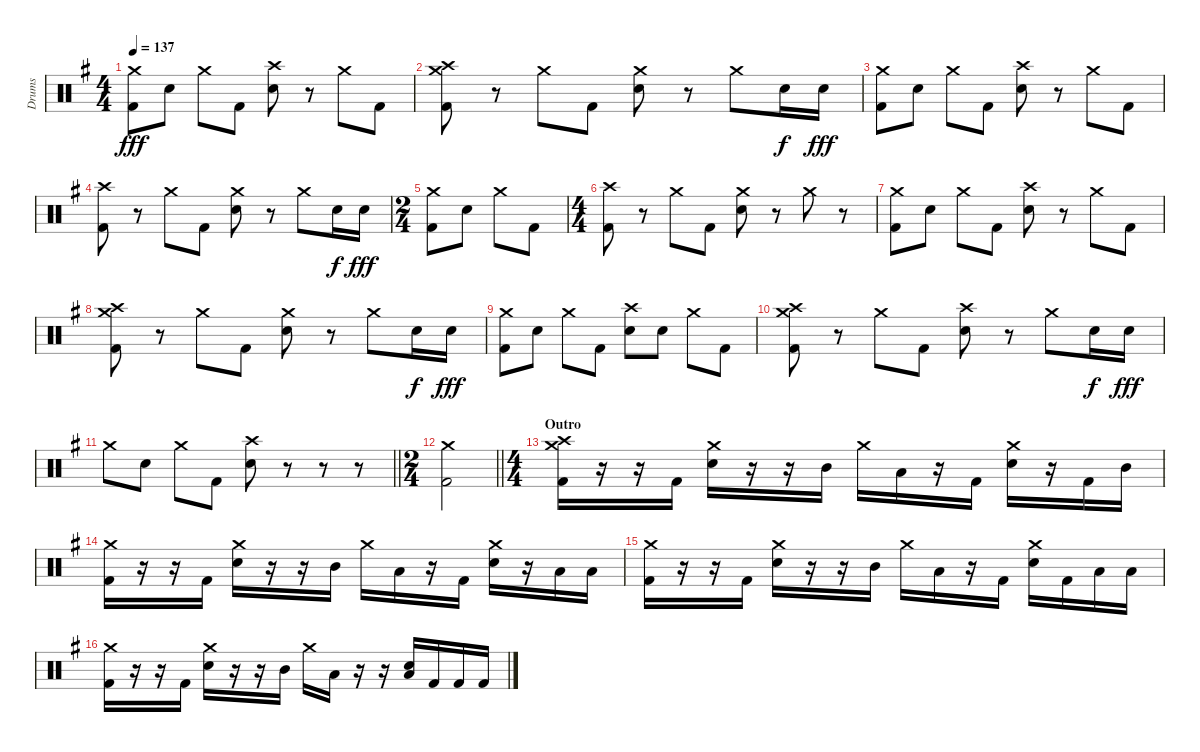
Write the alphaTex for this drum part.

\track ("Drums" "Drums") {instrument percussion}
\staff {score}
\articulation defaults
\ts (4 4)
\tempo 137
\clef neutral
\ks eminor
("Crash medium (hit)" "Kick (hit) 2").8{dy fff} "Electric Snare (hit)".8 "Crash medium (hit)".8 "Kick (hit) 2".8 ("Crash high (hit)" "Electric Snare (hit)").8 r.8 "Crash medium (hit)".8 "Kick (hit) 2".8 |
("Crash medium (hit)" "Crash high (hit)" "Kick (hit) 2").8 r.8 "Crash medium (hit)".8 "Kick (hit) 2".8 ("Crash medium (hit)" "Electric Snare (hit)").8 r.8 "Crash medium (hit)".8 "Electric Snare (hit)".16{dy f} "Electric Snare (hit)".16{dy fff} |
("Crash medium (hit)" "Kick (hit) 2").8 "Electric Snare (hit)".8 "Crash medium (hit)".8 "Kick (hit) 2".8 ("Crash high (hit)" "Electric Snare (hit)").8 r.8 "Crash medium (hit)".8 "Kick (hit) 2".8 |
("Crash high (hit)" "Kick (hit) 2").8 r.8 "Crash medium (hit)".8 "Kick (hit) 2".8 ("Crash medium (hit)" "Electric Snare (hit)").8 r.8 "Crash medium (hit)".8 "Electric Snare (hit)".16{dy f} "Electric Snare (hit)".16{dy fff} |
\ts (2 4)
("Crash medium (hit)" "Kick (hit) 2").8 "Electric Snare (hit)".8 "Crash medium (hit)".8 "Kick (hit) 2".8 |
\ts (4 4)
("Crash high (hit)" "Kick (hit) 2").8 r.8 "Crash medium (hit)".8 "Kick (hit) 2".8 ("Crash medium (hit)" "Electric Snare (hit)").8 r.8 "Crash medium (hit)".8 r.8 |
("Crash medium (hit)" "Kick (hit) 2").8 "Electric Snare (hit)".8 "Crash medium (hit)".8 "Kick (hit) 2".8 ("Crash high (hit)" "Electric Snare (hit)").8 r.8 "Crash medium (hit)".8 "Kick (hit) 2".8 |
("Crash medium (hit)" "Crash high (hit)" "Kick (hit) 2").8 r.8 "Crash medium (hit)".8 "Kick (hit) 2".8 ("Crash medium (hit)" "Electric Snare (hit)").8 r.8 "Crash medium (hit)".8 "Electric Snare (hit)".16{dy f} "Electric Snare (hit)".16{dy fff} |
("Crash medium (hit)" "Kick (hit) 2").8 "Electric Snare (hit)".8 "Crash medium (hit)".8 "Kick (hit) 2".8 ("Crash high (hit)" "Electric Snare (hit)").8 "Electric Snare (hit)".8 "Crash medium (hit)".8 "Kick (hit) 2".8 |
("Crash medium (hit)" "Crash high (hit)" "Kick (hit) 2").8 r.8 "Crash medium (hit)".8 "Kick (hit) 2".8 ("Crash high (hit)" "Electric Snare (hit)").8 r.8 "Crash medium (hit)".8 "Electric Snare (hit)".16{dy f} "Electric Snare (hit)".16{dy fff} |
\barLineRight lightlight "Crash medium (hit)".8 "Electric Snare (hit)".8 "Crash medium (hit)".8 "Kick (hit) 2".8
("Crash high (hit)" "Electric Snare (hit)").8 r.8 r.8 r.8 |
\ts (2 4)
\barLineRight lightlight
("Crash medium (hit)" "Kick (hit) 2").2 |
\ts (4 4)
\section ("" "Outro")
("Crash medium (hit)" "Crash high (hit)" "Kick (hit) 2").16 r.16 r.16 "Kick (hit) 2".16 ("Crash medium (hit)" "Electric Snare (hit)").16 r.16 r.16 "Mid Tom (hit)".16 "Crash medium (hit)".16 "Low Tom (hit)".16 r.16 "Kick (hit) 2".16 ("Crash medium (hit)" "Electric Snare (hit)").16 r.16 "Kick (hit) 2".16 "Mid Tom (hit)".16 |
("Crash medium (hit)" "Kick (hit) 2").16 r.16 r.16 "Kick (hit) 2".16 ("Crash medium (hit)" "Electric Snare (hit)").16 r.16 r.16 "Mid Tom (hit)".16 "Crash medium (hit)".16 "Low Tom (hit)".16 r.16 "Kick (hit) 2".16 ("Crash medium (hit)" "Electric Snare (hit)").16 r.16 "Low Tom (hit)".16 "Low Tom (hit)".16 |
("Crash medium (hit)" "Kick (hit) 2").16 r.16 r.16 "Kick (hit) 2".16 ("Crash medium (hit)" "Electric Snare (hit)").16 r.16 r.16 "Mid Tom (hit)".16 "Crash medium (hit)".16 "Low Tom (hit)".16 r.16 "Kick (hit) 2".16 ("Crash medium (hit)" "Electric Snare (hit)").16 "Kick (hit) 2".16 "Low Tom (hit)".16 "Low Tom (hit)".16 |
("Crash medium (hit)" "Kick (hit) 2").16 r.16 r.16 "Kick (hit) 2".16 ("Crash medium (hit)" "Electric Snare (hit)").16 r.16 r.16 "Mid Tom (hit)".16 "Crash medium (hit)".16 "Low Tom (hit)".16 r.16 r.16 ("Electric Snare (hit)" "Low Floor Tom (hit)").16 "Kick (hit) 2".16 "Kick (hit) 2".16 "Kick (hit) 2".16
